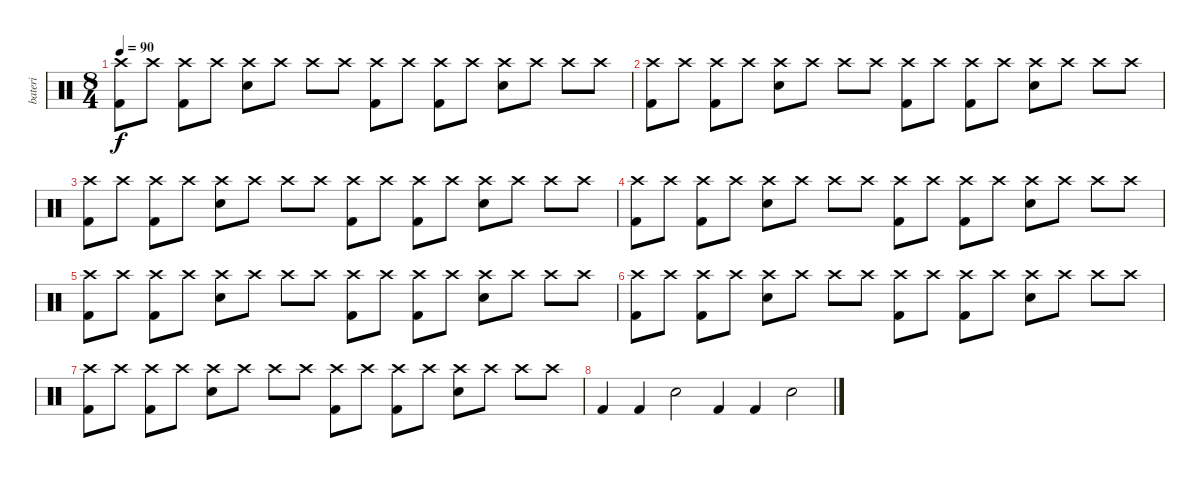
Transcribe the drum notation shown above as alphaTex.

\track ("bateri" "bateri") {instrument percussion}
\staff {score}
\articulation defaults
\ts (8 4)
\tempo 90
\clef neutral
\ks c
("Kick (hit) 2" "Crash high (hit)").8{dy f} "Crash high (hit)".8 ("Crash high (hit)" "Kick (hit) 2").8 "Crash high (hit)".8 ("Crash high (hit)" "Snare (hit) 2").8 "Crash high (hit)".8 "Crash high (hit)".8 "Crash high (hit)".8 ("Kick (hit) 2" "Crash high (hit)").8 "Crash high (hit)".8 ("Crash high (hit)" "Kick (hit) 2").8 "Crash high (hit)".8 ("Crash high (hit)" "Snare (hit) 2").8 "Crash high (hit)".8 "Crash high (hit)".8 "Crash high (hit)".8 |
("Kick (hit) 2" "Crash high (hit)").8 "Crash high (hit)".8 ("Crash high (hit)" "Kick (hit) 2").8 "Crash high (hit)".8 ("Crash high (hit)" "Snare (hit) 2").8 "Crash high (hit)".8 "Crash high (hit)".8 "Crash high (hit)".8 ("Kick (hit) 2" "Crash high (hit)").8 "Crash high (hit)".8 ("Crash high (hit)" "Kick (hit) 2").8 "Crash high (hit)".8 ("Crash high (hit)" "Snare (hit) 2").8 "Crash high (hit)".8 "Crash high (hit)".8 "Crash high (hit)".8 |
("Kick (hit) 2" "Crash high (hit)").8 "Crash high (hit)".8 ("Crash high (hit)" "Kick (hit) 2").8 "Crash high (hit)".8 ("Crash high (hit)" "Snare (hit) 2").8 "Crash high (hit)".8 "Crash high (hit)".8 "Crash high (hit)".8 ("Kick (hit) 2" "Crash high (hit)").8 "Crash high (hit)".8 ("Crash high (hit)" "Kick (hit) 2").8 "Crash high (hit)".8 ("Crash high (hit)" "Snare (hit) 2").8 "Crash high (hit)".8 "Crash high (hit)".8 "Crash high (hit)".8 |
("Kick (hit) 2" "Crash high (hit)").8 "Crash high (hit)".8 ("Crash high (hit)" "Kick (hit) 2").8 "Crash high (hit)".8 ("Crash high (hit)" "Snare (hit) 2").8 "Crash high (hit)".8 "Crash high (hit)".8 "Crash high (hit)".8 ("Kick (hit) 2" "Crash high (hit)").8 "Crash high (hit)".8 ("Crash high (hit)" "Kick (hit) 2").8 "Crash high (hit)".8 ("Crash high (hit)" "Snare (hit) 2").8 "Crash high (hit)".8 "Crash high (hit)".8 "Crash high (hit)".8 |
("Kick (hit) 2" "Crash high (hit)").8 "Crash high (hit)".8 ("Crash high (hit)" "Kick (hit) 2").8 "Crash high (hit)".8 ("Crash high (hit)" "Snare (hit) 2").8 "Crash high (hit)".8 "Crash high (hit)".8 "Crash high (hit)".8 ("Kick (hit) 2" "Crash high (hit)").8 "Crash high (hit)".8 ("Crash high (hit)" "Kick (hit) 2").8 "Crash high (hit)".8 ("Crash high (hit)" "Snare (hit) 2").8 "Crash high (hit)".8 "Crash high (hit)".8 "Crash high (hit)".8 |
("Kick (hit) 2" "Crash high (hit)").8 "Crash high (hit)".8 ("Crash high (hit)" "Kick (hit) 2").8 "Crash high (hit)".8 ("Crash high (hit)" "Snare (hit) 2").8 "Crash high (hit)".8 "Crash high (hit)".8 "Crash high (hit)".8 ("Kick (hit) 2" "Crash high (hit)").8 "Crash high (hit)".8 ("Crash high (hit)" "Kick (hit) 2").8 "Crash high (hit)".8 ("Crash high (hit)" "Snare (hit) 2").8 "Crash high (hit)".8 "Crash high (hit)".8 "Crash high (hit)".8 |
("Kick (hit) 2" "Crash high (hit)").8 "Crash high (hit)".8 ("Crash high (hit)" "Kick (hit) 2").8 "Crash high (hit)".8 ("Crash high (hit)" "Snare (hit) 2").8 "Crash high (hit)".8 "Crash high (hit)".8 "Crash high (hit)".8 ("Kick (hit) 2" "Crash high (hit)").8 "Crash high (hit)".8 ("Crash high (hit)" "Kick (hit) 2").8 "Crash high (hit)".8 ("Crash high (hit)" "Snare (hit) 2").8 "Crash high (hit)".8 "Crash high (hit)".8 "Crash high (hit)".8 |
"Kick (hit) 2".4 "Kick (hit) 2".4 "Snare (hit) 2".2 "Kick (hit) 2".4 "Kick (hit) 2".4 "Snare (hit) 2".2
